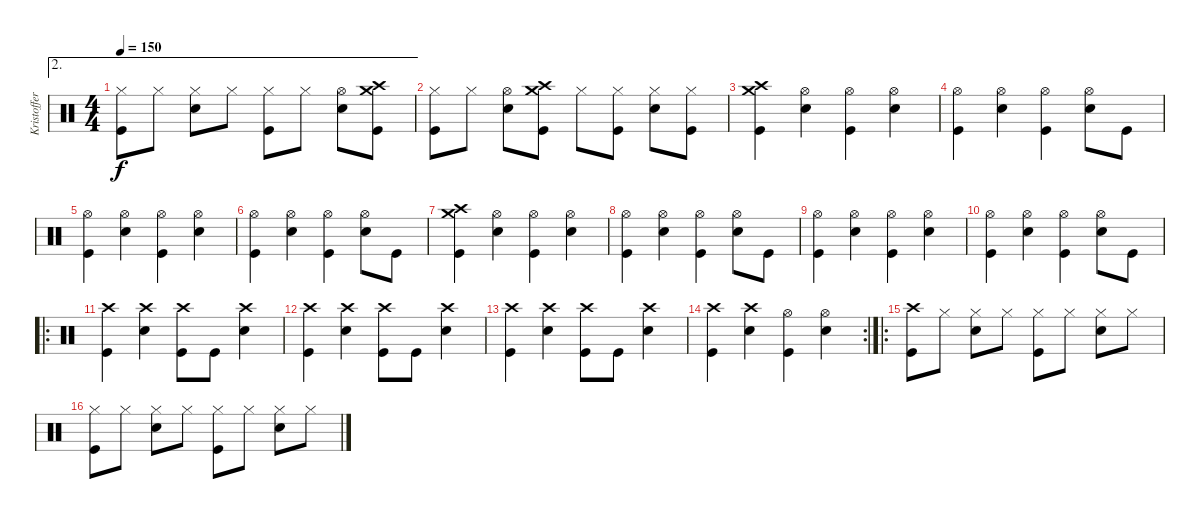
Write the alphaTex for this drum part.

\track ("Kristoffer Söderström - Drums" "Kristoffer") {instrument percussion}
\staff {score}
\articulation defaults
\ae 2
\ts (4 4)
\tempo 150
\clef neutral
\ks c
("Hi-Hat (closed)" "Kick (hit)").8{dy f} "Hi-Hat (closed)".8 ("Hi-Hat (closed)" "Snare (hit) 2").8 "Hi-Hat (closed)".8 ("Hi-Hat (closed)" "Kick (hit)").8 "Hi-Hat (closed)".8 ("Hi-Hat (open)" "Snare (hit) 2").8 ("Crash high (hit)" "Crash medium (hit)" "Kick (hit)").8 |
("Hi-Hat (closed)" "Kick (hit)").8 "Hi-Hat (closed)".8 ("Hi-Hat (open)" "Snare (hit) 2").8 ("Crash medium (hit)" "Crash high (hit)" "Kick (hit)").8 "Hi-Hat (closed)".8 ("Hi-Hat (closed)" "Kick (hit)").8 ("Hi-Hat (closed)" "Snare (hit) 2").8 ("Hi-Hat (closed)" "Kick (hit)").8 |
("Crash medium (hit)" "Crash high (hit)" "Kick (hit)").4 ("Hi-Hat (open)" "Snare (hit) 2").4 ("Hi-Hat (open)" "Kick (hit)").4 ("Hi-Hat (open)" "Snare (hit) 2").4 |
("Hi-Hat (open)" "Kick (hit)").4 ("Hi-Hat (open)" "Snare (hit) 2").4 ("Hi-Hat (open)" "Kick (hit)").4 ("Hi-Hat (open)" "Snare (hit) 2").8 "Kick (hit)".8 |
("Hi-Hat (open)" "Kick (hit)").4 ("Hi-Hat (open)" "Snare (hit) 2").4 ("Hi-Hat (open)" "Kick (hit)").4 ("Hi-Hat (open)" "Snare (hit) 2").4 |
("Hi-Hat (open)" "Kick (hit)").4 ("Hi-Hat (open)" "Snare (hit) 2").4 ("Hi-Hat (open)" "Kick (hit)").4 ("Hi-Hat (open)" "Snare (hit) 2").8 "Kick (hit)".8 |
("Crash medium (hit)" "Crash high (hit)" "Kick (hit)").4 ("Hi-Hat (open)" "Snare (hit) 2").4 ("Hi-Hat (open)" "Kick (hit)").4 ("Hi-Hat (open)" "Snare (hit) 2").4 |
("Hi-Hat (open)" "Kick (hit)").4 ("Hi-Hat (open)" "Snare (hit) 2").4 ("Hi-Hat (open)" "Kick (hit)").4 ("Hi-Hat (open)" "Snare (hit) 2").8 "Kick (hit)".8 |
("Hi-Hat (open)" "Kick (hit)").4 ("Hi-Hat (open)" "Snare (hit) 2").4 ("Hi-Hat (open)" "Kick (hit)").4 ("Hi-Hat (open)" "Snare (hit) 2").4 |
("Hi-Hat (open)" "Kick (hit)").4 ("Hi-Hat (open)" "Snare (hit) 2").4 ("Hi-Hat (open)" "Kick (hit)").4 ("Hi-Hat (open)" "Snare (hit) 2").8 "Kick (hit)".8 |
\ro
("Crash high (hit)" "Kick (hit)").4 ("Crash high (hit)" "Snare (hit) 2").4 ("Crash high (hit)" "Kick (hit)").8 "Kick (hit)".8 ("Crash high (hit)" "Snare (hit) 2").4 |
("Crash high (hit)" "Kick (hit)").4 ("Crash high (hit)" "Snare (hit) 2").4 ("Crash high (hit)" "Kick (hit)").8 "Kick (hit)".8 ("Crash high (hit)" "Snare (hit) 2").4 |
("Crash high (hit)" "Kick (hit)").4 ("Crash high (hit)" "Snare (hit) 2").4 ("Crash high (hit)" "Kick (hit)").8 "Kick (hit)".8 ("Crash high (hit)" "Snare (hit) 2").4 |
\rc 2
("Crash high (hit)" "Kick (hit)").4 ("Crash high (hit)" "Snare (hit) 2").4 ("Hi-Hat (open)" "Kick (hit)").4 ("Hi-Hat (open)" "Snare (hit) 2").4 |
\ro
("Crash high (hit)" "Kick (hit)").8 "Hi-Hat (closed)".8 ("Hi-Hat (closed)" "Snare (hit) 2").8 "Hi-Hat (closed)".8 ("Hi-Hat (closed)" "Kick (hit)").8 "Hi-Hat (closed)".8 ("Hi-Hat (closed)" "Snare (hit) 2").8 "Hi-Hat (closed)".8 |
("Hi-Hat (closed)" "Kick (hit)").8 "Hi-Hat (closed)".8 ("Hi-Hat (closed)" "Snare (hit) 2").8 "Hi-Hat (closed)".8 ("Hi-Hat (closed)" "Kick (hit)").8 "Hi-Hat (closed)".8 ("Hi-Hat (closed)" "Snare (hit) 2").8 "Hi-Hat (closed)".8
